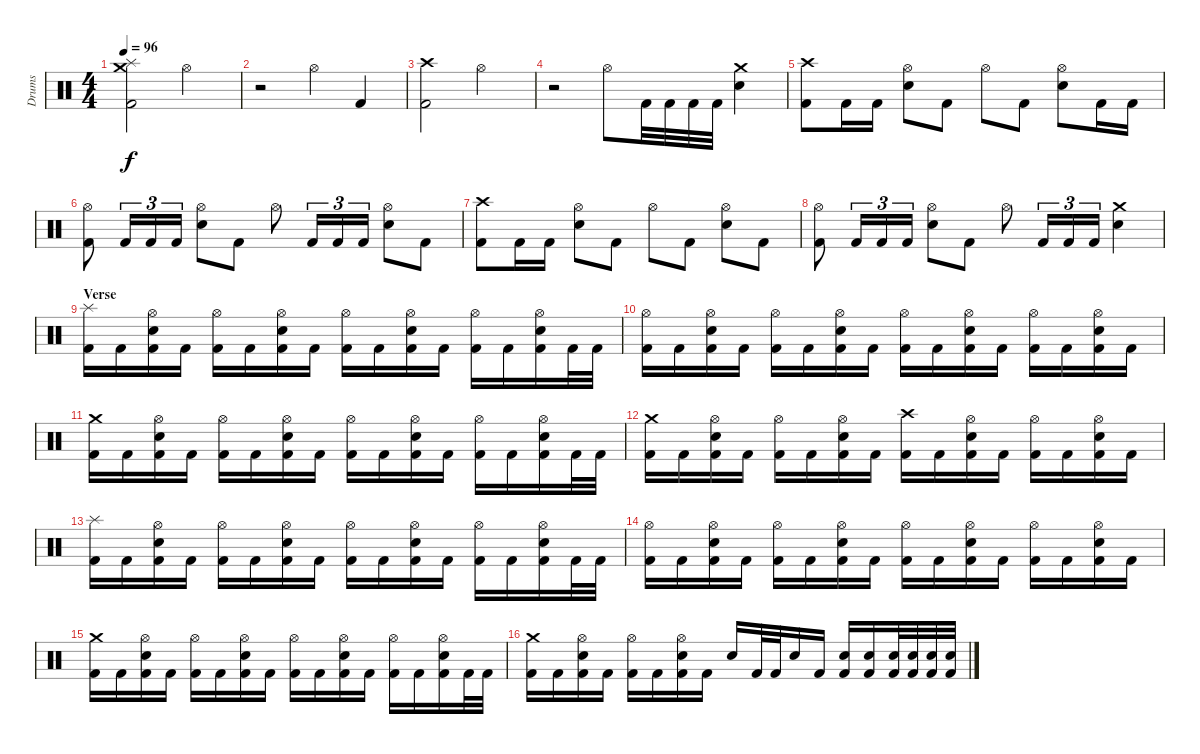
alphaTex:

\track ("Drums" "Drums") {instrument percussion}
\staff {score}
\articulation defaults
\ts (4 4)
\tempo 96
\clef neutral
\ks c
("Kick (hit) 2" "Splash (hit)" "Crash medium (hit)").2{dy f} "Hi-Hat (open)".2 |
r.2 "Hi-Hat (open)".4 "Kick (hit) 2".4 |
("Kick (hit) 2" "Crash high (hit)").2 "Hi-Hat (open)".2 |
r.2 "Hi-Hat (open)".8 "Kick (hit) 2".32 "Kick (hit) 2".32 "Kick (hit) 2".32 "Kick (hit) 2".32 ("Snare (hit) 2" "Crash medium (hit)").4 |
("Kick (hit) 2" "Crash high (hit)").8 "Kick (hit) 2".16 "Kick (hit) 2".16 ("Snare (hit) 2" "Hi-Hat (open)").8 "Kick (hit) 2".8 "Hi-Hat (open)".8 "Kick (hit) 2".8 ("Snare (hit) 2" "Hi-Hat (open)").8 "Kick (hit) 2".16 "Kick (hit) 2".16 |
("Kick (hit) 2" "Hi-Hat (open)").8 "Kick (hit) 2".16{tu (3 2)} "Kick (hit) 2".16{tu (3 2)} "Kick (hit) 2".16{tu (3 2)} ("Snare (hit) 2" "Hi-Hat (open)").8 "Kick (hit) 2".8 "Hi-Hat (open)".8 "Kick (hit) 2".16{tu (3 2)} "Kick (hit) 2".16{tu (3 2)} "Kick (hit) 2".16{tu (3 2)} ("Snare (hit) 2" "Hi-Hat (open)").8 "Kick (hit) 2".8 |
("Kick (hit) 2" "Crash high (hit)").8 "Kick (hit) 2".16 "Kick (hit) 2".16 ("Snare (hit) 2" "Hi-Hat (open)").8 "Kick (hit) 2".8 "Hi-Hat (open)".8 "Kick (hit) 2".8 ("Snare (hit) 2" "Hi-Hat (open)").8 "Kick (hit) 2".8 |
("Kick (hit) 2" "Hi-Hat (open)").8 "Kick (hit) 2".16{tu (3 2)} "Kick (hit) 2".16{tu (3 2)} "Kick (hit) 2".16{tu (3 2)} ("Snare (hit) 2" "Hi-Hat (open)").8 "Kick (hit) 2".8 "Hi-Hat (open)".8 "Kick (hit) 2".16{tu (3 2)} "Kick (hit) 2".16{tu (3 2)} "Kick (hit) 2".16{tu (3 2)} ("Snare (hit) 2" "Crash medium (hit)").4 |
\section ("" "Verse")
("Kick (hit) 2" "Splash (hit)").16 "Kick (hit) 2".16 ("Kick (hit) 2" "Snare (hit) 2" "Hi-Hat (open)").16 "Kick (hit) 2".16 ("Kick (hit) 2" "Hi-Hat (open)").16 "Kick (hit) 2".16 ("Kick (hit) 2" "Snare (hit) 2" "Hi-Hat (open)").16 "Kick (hit) 2".16 ("Kick (hit) 2" "Hi-Hat (open)").16 "Kick (hit) 2".16 ("Kick (hit) 2" "Snare (hit) 2" "Hi-Hat (open)").16 "Kick (hit) 2".16 ("Kick (hit) 2" "Hi-Hat (open)").16 "Kick (hit) 2".16 ("Kick (hit) 2" "Snare (hit) 2" "Hi-Hat (open)").16 "Kick (hit) 2".32 "Kick (hit) 2".32 |
("Kick (hit) 2" "Hi-Hat (open)").16 "Kick (hit) 2".16 ("Kick (hit) 2" "Snare (hit) 2" "Hi-Hat (open)").16 "Kick (hit) 2".16 ("Kick (hit) 2" "Hi-Hat (open)").16 "Kick (hit) 2".16 ("Kick (hit) 2" "Snare (hit) 2" "Hi-Hat (open)").16 "Kick (hit) 2".16 ("Kick (hit) 2" "Hi-Hat (open)").16 "Kick (hit) 2".16 ("Kick (hit) 2" "Snare (hit) 2" "Hi-Hat (open)").16 "Kick (hit) 2".16 ("Kick (hit) 2" "Hi-Hat (open)").16 "Kick (hit) 2".16 ("Kick (hit) 2" "Snare (hit) 2" "Hi-Hat (open)").16 "Kick (hit) 2".16 |
("Kick (hit) 2" "Crash medium (hit)").16 "Kick (hit) 2".16 ("Kick (hit) 2" "Snare (hit) 2" "Hi-Hat (open)").16 "Kick (hit) 2".16 ("Kick (hit) 2" "Hi-Hat (open)").16 "Kick (hit) 2".16 ("Kick (hit) 2" "Snare (hit) 2" "Hi-Hat (open)").16 "Kick (hit) 2".16 ("Kick (hit) 2" "Hi-Hat (open)").16 "Kick (hit) 2".16 ("Kick (hit) 2" "Snare (hit) 2" "Hi-Hat (open)").16 "Kick (hit) 2".16 ("Kick (hit) 2" "Hi-Hat (open)").16 "Kick (hit) 2".16 ("Kick (hit) 2" "Snare (hit) 2" "Hi-Hat (open)").16 "Kick (hit) 2".32 "Kick (hit) 2".32 |
("Kick (hit) 2" "Crash medium (hit)").16 "Kick (hit) 2".16 ("Kick (hit) 2" "Snare (hit) 2" "Hi-Hat (open)").16 "Kick (hit) 2".16 ("Kick (hit) 2" "Hi-Hat (open)").16 "Kick (hit) 2".16 ("Kick (hit) 2" "Snare (hit) 2" "Hi-Hat (open)").16 "Kick (hit) 2".16 ("Kick (hit) 2" "Crash high (hit)").16 "Kick (hit) 2".16 ("Kick (hit) 2" "Snare (hit) 2" "Hi-Hat (open)").16 "Kick (hit) 2".16 ("Kick (hit) 2" "Hi-Hat (open)").16 "Kick (hit) 2".16 ("Kick (hit) 2" "Snare (hit) 2" "Hi-Hat (open)").16 "Kick (hit) 2".16 |
("Kick (hit) 2" "Splash (hit)").16 "Kick (hit) 2".16 ("Kick (hit) 2" "Snare (hit) 2" "Hi-Hat (open)").16 "Kick (hit) 2".16 ("Kick (hit) 2" "Hi-Hat (open)").16 "Kick (hit) 2".16 ("Kick (hit) 2" "Snare (hit) 2" "Hi-Hat (open)").16 "Kick (hit) 2".16 ("Kick (hit) 2" "Hi-Hat (open)").16 "Kick (hit) 2".16 ("Kick (hit) 2" "Snare (hit) 2" "Hi-Hat (open)").16 "Kick (hit) 2".16 ("Kick (hit) 2" "Hi-Hat (open)").16 "Kick (hit) 2".16 ("Kick (hit) 2" "Snare (hit) 2" "Hi-Hat (open)").16 "Kick (hit) 2".32 "Kick (hit) 2".32 |
("Kick (hit) 2" "Hi-Hat (open)").16 "Kick (hit) 2".16 ("Kick (hit) 2" "Snare (hit) 2" "Hi-Hat (open)").16 "Kick (hit) 2".16 ("Kick (hit) 2" "Hi-Hat (open)").16 "Kick (hit) 2".16 ("Kick (hit) 2" "Snare (hit) 2" "Hi-Hat (open)").16 "Kick (hit) 2".16 ("Kick (hit) 2" "Hi-Hat (open)").16 "Kick (hit) 2".16 ("Kick (hit) 2" "Snare (hit) 2" "Hi-Hat (open)").16 "Kick (hit) 2".16 ("Kick (hit) 2" "Hi-Hat (open)").16 "Kick (hit) 2".16 ("Kick (hit) 2" "Snare (hit) 2" "Hi-Hat (open)").16 "Kick (hit) 2".16 |
("Kick (hit) 2" "Crash medium (hit)").16 "Kick (hit) 2".16 ("Kick (hit) 2" "Snare (hit) 2" "Hi-Hat (open)").16 "Kick (hit) 2".16 ("Kick (hit) 2" "Hi-Hat (open)").16 "Kick (hit) 2".16 ("Kick (hit) 2" "Snare (hit) 2" "Hi-Hat (open)").16 "Kick (hit) 2".16 ("Kick (hit) 2" "Hi-Hat (open)").16 "Kick (hit) 2".16 ("Kick (hit) 2" "Snare (hit) 2" "Hi-Hat (open)").16 "Kick (hit) 2".16 ("Kick (hit) 2" "Hi-Hat (open)").16 "Kick (hit) 2".16 ("Kick (hit) 2" "Snare (hit) 2" "Hi-Hat (open)").16 "Kick (hit) 2".32 "Kick (hit) 2".32 |
("Kick (hit) 2" "Crash medium (hit)").16 "Kick (hit) 2".16 ("Kick (hit) 2" "Snare (hit) 2" "Hi-Hat (open)").16 "Kick (hit) 2".16 ("Kick (hit) 2" "Hi-Hat (open)").16 "Kick (hit) 2".16 ("Kick (hit) 2" "Snare (hit) 2" "Hi-Hat (open)").16 "Kick (hit) 2".16 "Snare (hit) 2".16 "Kick (hit) 2".32 "Kick (hit) 2".32 "Snare (hit) 2".16 "Kick (hit) 2".16 ("Kick (hit) 2" "Snare (hit) 2").16 ("Kick (hit) 2" "Snare (hit) 2").16 ("Kick (hit) 2" "Snare (hit) 2").32 ("Kick (hit) 2" "Snare (hit) 2").32 ("Kick (hit) 2" "Snare (hit) 2").32 ("Kick (hit) 2" "Snare (hit) 2").32
